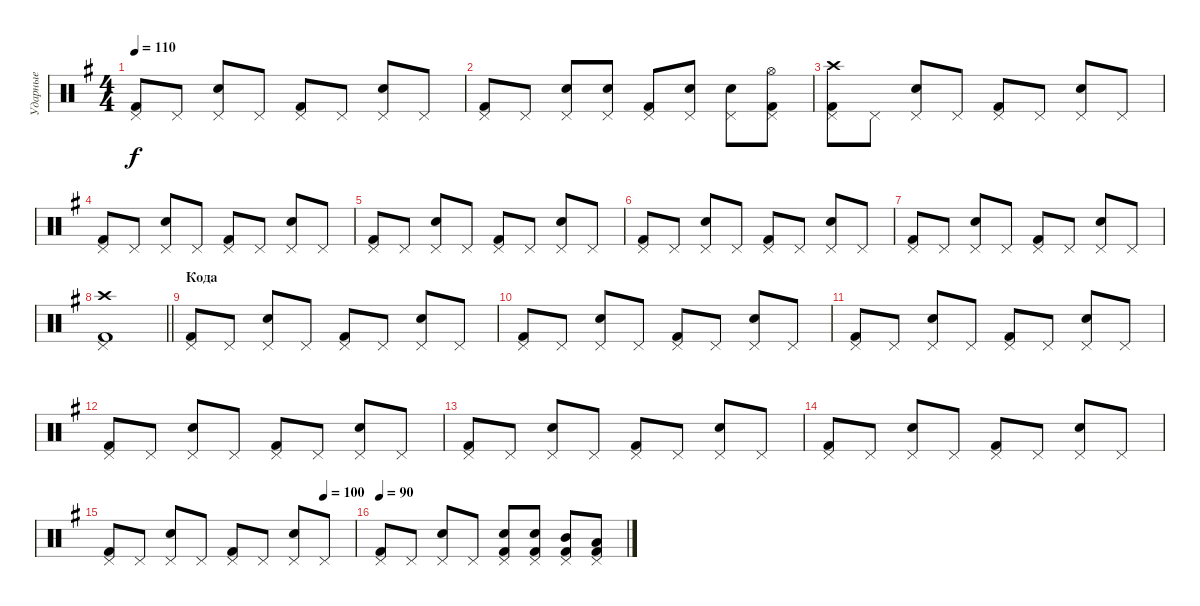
\track ("Ударные" "Ударные") {instrument percussion}
\staff {score}
\articulation defaults
\ts (4 4)
\tempo 110
\clef neutral
\ks eminor
("Kick (hit) 2" "Pedal Hi-Hat (hit)").8{dy f} "Pedal Hi-Hat (hit)".8 ("Snare (hit) 2" "Pedal Hi-Hat (hit)").8 "Pedal Hi-Hat (hit)".8 ("Kick (hit) 2" "Pedal Hi-Hat (hit)").8 "Pedal Hi-Hat (hit)".8 ("Snare (hit) 2" "Pedal Hi-Hat (hit)").8 "Pedal Hi-Hat (hit)".8 |
("Kick (hit) 2" "Pedal Hi-Hat (hit)").8 "Pedal Hi-Hat (hit)".8 ("Snare (hit) 2" "Pedal Hi-Hat (hit)").8 ("Snare (hit) 2" "Pedal Hi-Hat (hit)").8 ("Kick (hit) 2" "Pedal Hi-Hat (hit)").8 ("Snare (hit) 2" "Pedal Hi-Hat (hit)").8 ("Snare (hit) 2" "Pedal Hi-Hat (hit)").8 ("Hi-Hat (open)" "Kick (hit) 2" "Pedal Hi-Hat (hit)").8 |
("Crash high (hit)" "Kick (hit) 2" "Pedal Hi-Hat (hit)").8 "Pedal Hi-Hat (hit)".8 ("Pedal Hi-Hat (hit)" "Snare (hit) 2").8 "Pedal Hi-Hat (hit)".8 ("Pedal Hi-Hat (hit)" "Kick (hit) 2").8 "Pedal Hi-Hat (hit)".8 ("Pedal Hi-Hat (hit)" "Snare (hit) 2").8 "Pedal Hi-Hat (hit)".8 |
("Kick (hit) 2" "Pedal Hi-Hat (hit)").8 "Pedal Hi-Hat (hit)".8 ("Snare (hit) 2" "Pedal Hi-Hat (hit)").8 "Pedal Hi-Hat (hit)".8 ("Kick (hit) 2" "Pedal Hi-Hat (hit)").8 "Pedal Hi-Hat (hit)".8 ("Snare (hit) 2" "Pedal Hi-Hat (hit)").8 "Pedal Hi-Hat (hit)".8 |
("Kick (hit) 2" "Pedal Hi-Hat (hit)").8 "Pedal Hi-Hat (hit)".8 ("Snare (hit) 2" "Pedal Hi-Hat (hit)").8 "Pedal Hi-Hat (hit)".8 ("Kick (hit) 2" "Pedal Hi-Hat (hit)").8 "Pedal Hi-Hat (hit)".8 ("Snare (hit) 2" "Pedal Hi-Hat (hit)").8 "Pedal Hi-Hat (hit)".8 |
("Kick (hit) 2" "Pedal Hi-Hat (hit)").8 "Pedal Hi-Hat (hit)".8 ("Snare (hit) 2" "Pedal Hi-Hat (hit)").8 "Pedal Hi-Hat (hit)".8 ("Kick (hit) 2" "Pedal Hi-Hat (hit)").8 "Pedal Hi-Hat (hit)".8 ("Snare (hit) 2" "Pedal Hi-Hat (hit)").8 "Pedal Hi-Hat (hit)".8 |
("Kick (hit) 2" "Pedal Hi-Hat (hit)").8 "Pedal Hi-Hat (hit)".8 ("Snare (hit) 2" "Pedal Hi-Hat (hit)").8 "Pedal Hi-Hat (hit)".8 ("Kick (hit) 2" "Pedal Hi-Hat (hit)").8 "Pedal Hi-Hat (hit)".8 ("Snare (hit) 2" "Pedal Hi-Hat (hit)").8 "Pedal Hi-Hat (hit)".8 |
\barLineRight lightlight
("Kick (hit) 2" "Crash high (hit)" "Pedal Hi-Hat (hit)").1 |
\section ("" "Кода")
("Kick (hit) 2" "Pedal Hi-Hat (hit)").8 "Pedal Hi-Hat (hit)".8 ("Snare (hit) 2" "Pedal Hi-Hat (hit)").8 "Pedal Hi-Hat (hit)".8 ("Kick (hit) 2" "Pedal Hi-Hat (hit)").8 "Pedal Hi-Hat (hit)".8 ("Snare (hit) 2" "Pedal Hi-Hat (hit)").8 "Pedal Hi-Hat (hit)".8 |
("Kick (hit) 2" "Pedal Hi-Hat (hit)").8 "Pedal Hi-Hat (hit)".8 ("Snare (hit) 2" "Pedal Hi-Hat (hit)").8 "Pedal Hi-Hat (hit)".8 ("Kick (hit) 2" "Pedal Hi-Hat (hit)").8 "Pedal Hi-Hat (hit)".8 ("Snare (hit) 2" "Pedal Hi-Hat (hit)").8 "Pedal Hi-Hat (hit)".8 |
("Kick (hit) 2" "Pedal Hi-Hat (hit)").8 "Pedal Hi-Hat (hit)".8 ("Snare (hit) 2" "Pedal Hi-Hat (hit)").8 "Pedal Hi-Hat (hit)".8 ("Kick (hit) 2" "Pedal Hi-Hat (hit)").8 "Pedal Hi-Hat (hit)".8 ("Snare (hit) 2" "Pedal Hi-Hat (hit)").8 "Pedal Hi-Hat (hit)".8 |
("Kick (hit) 2" "Pedal Hi-Hat (hit)").8 "Pedal Hi-Hat (hit)".8 ("Snare (hit) 2" "Pedal Hi-Hat (hit)").8 "Pedal Hi-Hat (hit)".8 ("Kick (hit) 2" "Pedal Hi-Hat (hit)").8 "Pedal Hi-Hat (hit)".8 ("Snare (hit) 2" "Pedal Hi-Hat (hit)").8 "Pedal Hi-Hat (hit)".8 |
("Kick (hit) 2" "Pedal Hi-Hat (hit)").8 "Pedal Hi-Hat (hit)".8 ("Snare (hit) 2" "Pedal Hi-Hat (hit)").8 "Pedal Hi-Hat (hit)".8 ("Kick (hit) 2" "Pedal Hi-Hat (hit)").8 "Pedal Hi-Hat (hit)".8 ("Snare (hit) 2" "Pedal Hi-Hat (hit)").8 "Pedal Hi-Hat (hit)".8 |
("Kick (hit) 2" "Pedal Hi-Hat (hit)").8 "Pedal Hi-Hat (hit)".8 ("Snare (hit) 2" "Pedal Hi-Hat (hit)").8 "Pedal Hi-Hat (hit)".8 ("Kick (hit) 2" "Pedal Hi-Hat (hit)").8 "Pedal Hi-Hat (hit)".8 ("Snare (hit) 2" "Pedal Hi-Hat (hit)").8 "Pedal Hi-Hat (hit)".8 |
\tempo (100 0.875)
("Kick (hit) 2" "Pedal Hi-Hat (hit)").8 "Pedal Hi-Hat (hit)".8 ("Snare (hit) 2" "Pedal Hi-Hat (hit)").8 "Pedal Hi-Hat (hit)".8 ("Kick (hit) 2" "Pedal Hi-Hat (hit)").8 "Pedal Hi-Hat (hit)".8 ("Snare (hit) 2" "Pedal Hi-Hat (hit)").8 "Pedal Hi-Hat (hit)".8 |
\tempo 70
\tempo 90
("Kick (hit) 2" "Pedal Hi-Hat (hit)").8 "Pedal Hi-Hat (hit)".8 ("Snare (hit) 2" "Pedal Hi-Hat (hit)").8 "Pedal Hi-Hat (hit)".8 ("Snare (hit) 2" "Kick (hit) 2" "Pedal Hi-Hat (hit)").8 ("Snare (hit) 2" "Kick (hit) 2" "Pedal Hi-Hat (hit)").8 ("Kick (hit) 2" "Mid Tom (hit)" "Pedal Hi-Hat (hit)").8 ("Kick (hit) 2" "Low Tom (hit)" "Pedal Hi-Hat (hit)").8
